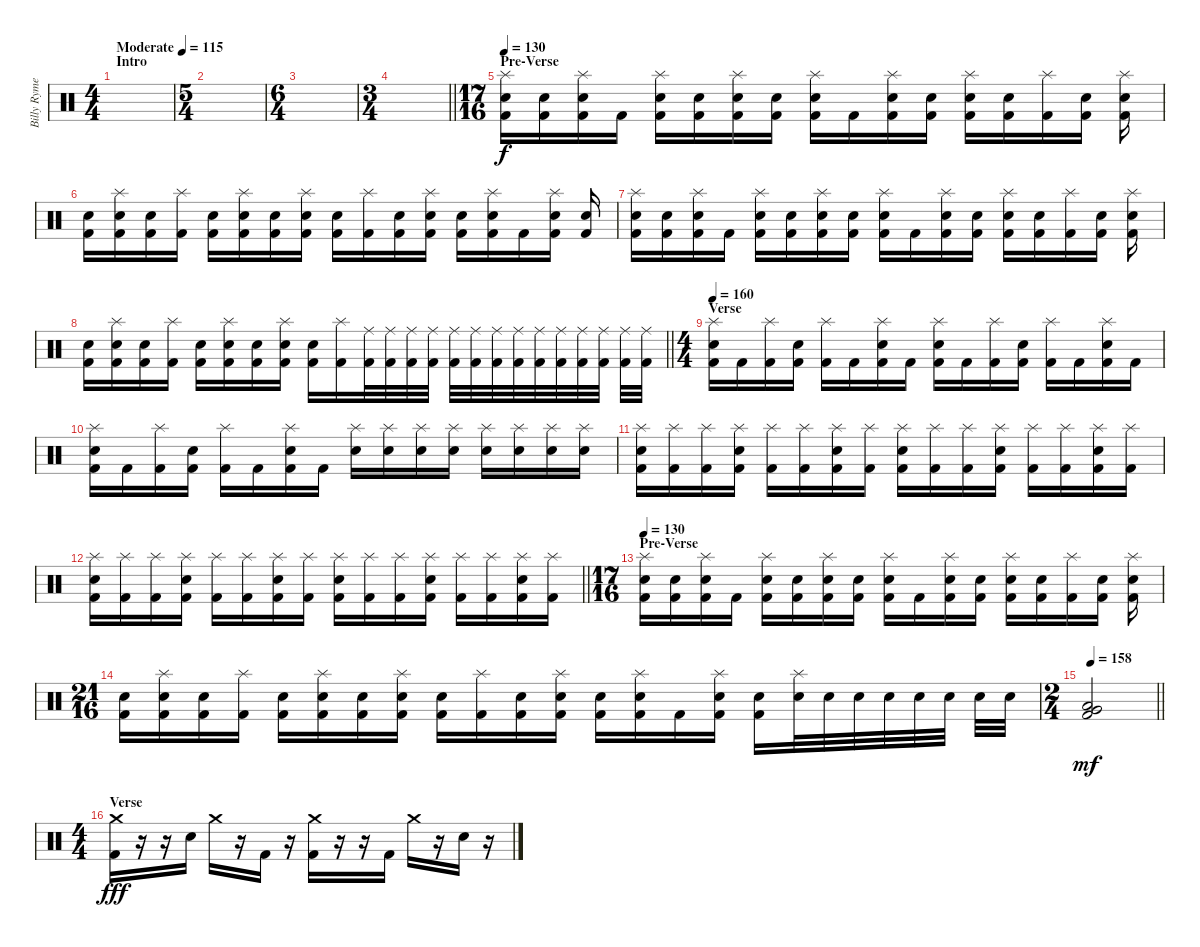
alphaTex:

\track ("Billy Rymer" "Billy Ryme") {instrument percussion}
\staff {score}
\articulation defaults
\ts (4 4)
\section ("" "Intro")
\tempo (115 "Moderate")
\clef neutral
\ks c
|
\ts (5 4)
|
\ts (6 4)
|
\ts (3 4)
\barLineRight lightlight
|
\ts (17 16)
\section ("" "Pre-Verse")
\tempo 145
\tempo 130
("Splash (hit)" "Electric Snare (hit)" "Kick (hit) 2").16 ("Electric Snare (hit)" "Kick (hit) 2").16 ("Splash (hit)" "Electric Snare (hit)" "Kick (hit) 2").16 "Kick (hit) 2".16 ("Splash (hit)" "Electric Snare (hit)" "Kick (hit) 2").16 ("Electric Snare (hit)" "Kick (hit) 2").16 ("Splash (hit)" "Electric Snare (hit)" "Kick (hit) 2").16 ("Electric Snare (hit)" "Kick (hit) 2").16 ("Splash (hit)" "Electric Snare (hit)" "Kick (hit) 2").16 "Kick (hit) 2".16 ("Splash (hit)" "Electric Snare (hit)" "Kick (hit) 2").16 ("Electric Snare (hit)" "Kick (hit) 2").16 ("Splash (hit)" "Electric Snare (hit)" "Kick (hit) 2").16 ("Electric Snare (hit)" "Kick (hit) 2").16 ("Splash (hit)" "Kick (hit) 2").16 ("Electric Snare (hit)" "Kick (hit) 2").16 ("Splash (hit)" "Electric Snare (hit)" "Kick (hit) 2").16 |
("Electric Snare (hit)" "Kick (hit) 2").16 ("Splash (hit)" "Electric Snare (hit)" "Kick (hit) 2").16 ("Electric Snare (hit)" "Kick (hit) 2").16 ("Splash (hit)" "Kick (hit) 2").16 ("Electric Snare (hit)" "Kick (hit) 2").16 ("Splash (hit)" "Electric Snare (hit)" "Kick (hit) 2").16 ("Electric Snare (hit)" "Kick (hit) 2").16 ("Splash (hit)" "Electric Snare (hit)" "Kick (hit) 2").16 ("Electric Snare (hit)" "Kick (hit) 2").16 ("Splash (hit)" "Kick (hit) 2").16 ("Electric Snare (hit)" "Kick (hit) 2").16 ("Splash (hit)" "Electric Snare (hit)" "Kick (hit) 2").16 ("Electric Snare (hit)" "Kick (hit) 2").16 ("Splash (hit)" "Electric Snare (hit)" "Kick (hit) 2").16 "Kick (hit) 2".16 ("Splash (hit)" "Electric Snare (hit)" "Kick (hit) 2").16 ("Electric Snare (hit)" "Kick (hit) 2").16 |
("Splash (hit)" "Electric Snare (hit)" "Kick (hit) 2").16 ("Electric Snare (hit)" "Kick (hit) 2").16 ("Splash (hit)" "Electric Snare (hit)" "Kick (hit) 2").16 "Kick (hit) 2".16 ("Splash (hit)" "Electric Snare (hit)" "Kick (hit) 2").16 ("Electric Snare (hit)" "Kick (hit) 2").16 ("Splash (hit)" "Electric Snare (hit)" "Kick (hit) 2").16 ("Electric Snare (hit)" "Kick (hit) 2").16 ("Splash (hit)" "Electric Snare (hit)" "Kick (hit) 2").16 "Kick (hit) 2".16 ("Splash (hit)" "Electric Snare (hit)" "Kick (hit) 2").16 ("Electric Snare (hit)" "Kick (hit) 2").16 ("Splash (hit)" "Electric Snare (hit)" "Kick (hit) 2").16 ("Electric Snare (hit)" "Kick (hit) 2").16 ("Splash (hit)" "Kick (hit) 2").16 ("Electric Snare (hit)" "Kick (hit) 2").16 ("Splash (hit)" "Electric Snare (hit)" "Kick (hit) 2").16 |
\barLineRight lightlight
("Electric Snare (hit)" "Kick (hit) 2").16 ("Splash (hit)" "Electric Snare (hit)" "Kick (hit) 2").16 ("Electric Snare (hit)" "Kick (hit) 2").16 ("Splash (hit)" "Kick (hit) 2").16 ("Electric Snare (hit)" "Kick (hit) 2").16 ("Splash (hit)" "Electric Snare (hit)" "Kick (hit) 2").16 ("Electric Snare (hit)" "Kick (hit) 2").16 ("Splash (hit)" "Electric Snare (hit)" "Kick (hit) 2").16 ("Electric Snare (hit)" "Kick (hit) 2").16 ("Splash (hit)" "Kick (hit) 2").16 ("Ride (middle)" "Kick (hit) 2").32 ("Ride (middle)" "Kick (hit) 2").32 ("Ride (middle)" "Kick (hit) 2").32 ("Ride (middle)" "Kick (hit) 2").32 ("Ride (middle)" "Kick (hit) 2").32 ("Ride (middle)" "Kick (hit) 2").32 ("Ride (middle)" "Kick (hit) 2").32 ("Ride (middle)" "Kick (hit) 2").32 ("Ride (middle)" "Kick (hit) 2").32 ("Ride (middle)" "Kick (hit) 2").32 ("Ride (middle)" "Kick (hit) 2").32 ("Ride (middle)" "Kick (hit) 2").32 ("Ride (middle)" "Kick (hit) 2").32 ("Ride (middle)" "Kick (hit) 2").32 |
\ts (4 4)
\section ("" "Verse")
\tempo 160
("Splash (hit)" "Electric Snare (hit)" "Kick (hit) 2").16 "Kick (hit) 2".16 ("Splash (hit)" "Kick (hit) 2").16 ("Electric Snare (hit)" "Kick (hit) 2").16 ("Splash (hit)" "Kick (hit) 2").16 "Kick (hit) 2".16 ("Splash (hit)" "Electric Snare (hit)" "Kick (hit) 2").16 "Kick (hit) 2".16 ("Splash (hit)" "Electric Snare (hit)" "Kick (hit) 2").16 "Kick (hit) 2".16 ("Splash (hit)" "Kick (hit) 2").16 ("Electric Snare (hit)" "Kick (hit) 2").16 ("Splash (hit)" "Kick (hit) 2").16 "Kick (hit) 2".16 ("Splash (hit)" "Electric Snare (hit)" "Kick (hit) 2").16 "Kick (hit) 2".16 |
("Splash (hit)" "Electric Snare (hit)" "Kick (hit) 2").16 "Kick (hit) 2".16 ("Splash (hit)" "Kick (hit) 2").16 ("Electric Snare (hit)" "Kick (hit) 2").16 ("Splash (hit)" "Kick (hit) 2").16 "Kick (hit) 2".16 ("Splash (hit)" "Electric Snare (hit)" "Kick (hit) 2").16 "Kick (hit) 2".16 ("Splash (hit)" "Electric Snare (hit)").16 ("Splash (hit)" "Electric Snare (hit)").16 ("Splash (hit)" "Electric Snare (hit)").16 ("Splash (hit)" "Electric Snare (hit)").16 ("Splash (hit)" "Electric Snare (hit)").16 ("Splash (hit)" "Electric Snare (hit)").16 ("Splash (hit)" "Electric Snare (hit)").16 ("Splash (hit)" "Electric Snare (hit)").16 |
("Splash (hit)" "Electric Snare (hit)" "Kick (hit) 2").16 ("Splash (hit)" "Kick (hit) 2").16 ("Splash (hit)" "Kick (hit) 2").16 ("Splash (hit)" "Electric Snare (hit)" "Kick (hit) 2").16 ("Splash (hit)" "Kick (hit) 2").16 ("Splash (hit)" "Kick (hit) 2").16 ("Splash (hit)" "Electric Snare (hit)" "Kick (hit) 2").16 ("Splash (hit)" "Kick (hit) 2").16 ("Splash (hit)" "Electric Snare (hit)" "Kick (hit) 2").16 ("Splash (hit)" "Kick (hit) 2").16 ("Splash (hit)" "Kick (hit) 2").16 ("Splash (hit)" "Electric Snare (hit)" "Kick (hit) 2").16 ("Splash (hit)" "Kick (hit) 2").16 ("Splash (hit)" "Kick (hit) 2").16 ("Splash (hit)" "Electric Snare (hit)" "Kick (hit) 2").16 ("Splash (hit)" "Kick (hit) 2").16 |
\barLineRight lightlight
("Splash (hit)" "Electric Snare (hit)" "Kick (hit) 2").16 ("Splash (hit)" "Kick (hit) 2").16 ("Splash (hit)" "Kick (hit) 2").16 ("Splash (hit)" "Electric Snare (hit)" "Kick (hit) 2").16 ("Splash (hit)" "Kick (hit) 2").16 ("Splash (hit)" "Kick (hit) 2").16 ("Splash (hit)" "Electric Snare (hit)" "Kick (hit) 2").16 ("Splash (hit)" "Kick (hit) 2").16 ("Splash (hit)" "Electric Snare (hit)" "Kick (hit) 2").16 ("Splash (hit)" "Kick (hit) 2").16 ("Splash (hit)" "Kick (hit) 2").16 ("Splash (hit)" "Electric Snare (hit)" "Kick (hit) 2").16 ("Splash (hit)" "Kick (hit) 2").16 ("Splash (hit)" "Kick (hit) 2").16 ("Splash (hit)" "Electric Snare (hit)" "Kick (hit) 2").16 ("Splash (hit)" "Kick (hit) 2").16 |
\ts (17 16)
\section ("" "Pre-Verse")
\tempo 145
\tempo 130
("Splash (hit)" "Electric Snare (hit)" "Kick (hit) 2").16 ("Electric Snare (hit)" "Kick (hit) 2").16 ("Splash (hit)" "Electric Snare (hit)" "Kick (hit) 2").16 "Kick (hit) 2".16 ("Splash (hit)" "Electric Snare (hit)" "Kick (hit) 2").16 ("Electric Snare (hit)" "Kick (hit) 2").16 ("Splash (hit)" "Electric Snare (hit)" "Kick (hit) 2").16 ("Electric Snare (hit)" "Kick (hit) 2").16 ("Splash (hit)" "Electric Snare (hit)" "Kick (hit) 2").16 "Kick (hit) 2".16 ("Splash (hit)" "Electric Snare (hit)" "Kick (hit) 2").16 ("Electric Snare (hit)" "Kick (hit) 2").16 ("Splash (hit)" "Electric Snare (hit)" "Kick (hit) 2").16 ("Electric Snare (hit)" "Kick (hit) 2").16 ("Splash (hit)" "Kick (hit) 2").16 ("Electric Snare (hit)" "Kick (hit) 2").16 ("Splash (hit)" "Electric Snare (hit)" "Kick (hit) 2").16 |
\ts (21 16)
("Electric Snare (hit)" "Kick (hit) 2").16 ("Splash (hit)" "Electric Snare (hit)" "Kick (hit) 2").16 ("Electric Snare (hit)" "Kick (hit) 2").16 ("Splash (hit)" "Kick (hit) 2").16 ("Electric Snare (hit)" "Kick (hit) 2").16 ("Splash (hit)" "Electric Snare (hit)" "Kick (hit) 2").16 ("Electric Snare (hit)" "Kick (hit) 2").16 ("Splash (hit)" "Electric Snare (hit)" "Kick (hit) 2").16 ("Electric Snare (hit)" "Kick (hit) 2").16 ("Splash (hit)" "Kick (hit) 2").16 ("Electric Snare (hit)" "Kick (hit) 2").16 ("Splash (hit)" "Electric Snare (hit)" "Kick (hit) 2").16 ("Electric Snare (hit)" "Kick (hit) 2").16 ("Splash (hit)" "Electric Snare (hit)" "Kick (hit) 2").16 "Kick (hit) 2".16 ("Splash (hit)" "Electric Snare (hit)" "Kick (hit) 2").16 ("Electric Snare (hit)" "Kick (hit) 2").16 ("Splash (hit)" "Electric Snare (hit)").32 "Electric Snare (hit)".32 "Electric Snare (hit)".32 "Electric Snare (hit)".32 "Electric Snare (hit)".32 "Electric Snare (hit)".32 "Electric Snare (hit)".32 "Electric Snare (hit)".32 |
\ts (2 4)
\tempo 158
\barLineRight lightlight
("Very Low Tom (hit)" "Low Floor Tom (hit)" "Kick (hit) 2").2{dy mf} |
\ts (4 4)
\section ("" "Verse")
("Crash medium (hit)" "Kick (hit) 2").16{dy fff} r.16 r.16 "Electric Snare (hit)".16 "Crash medium (hit)".16 r.16 "Kick (hit) 2".16 r.16 ("Crash medium (hit)" "Kick (hit) 2").16 r.16 r.16 "Kick (hit) 2".16 "Crash medium (hit)".16 r.16 "Electric Snare (hit)".16 r.16
